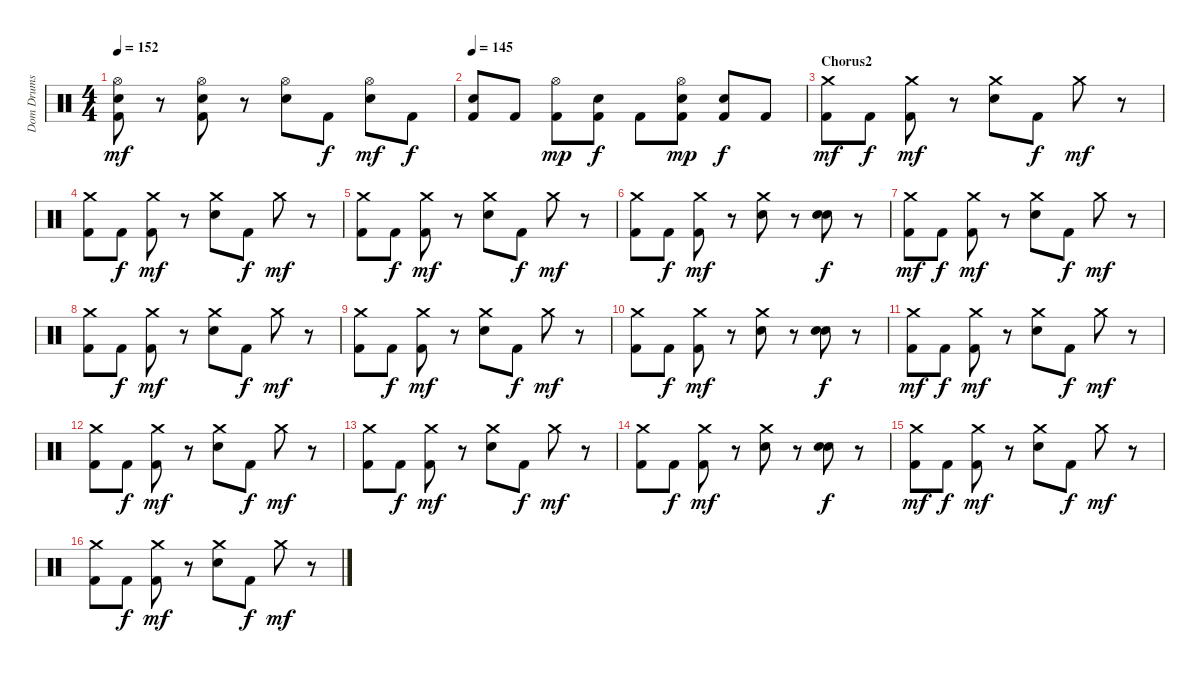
\track ("Dom Drums" "Dom Drums") {instrument percussion}
\staff {score}
\articulation defaults
\ts (4 4)
\tempo 152
\clef neutral
\ks c
("Hi-Hat (open)" "Kick (hit) 2" "Snare (hit) 2").8{dy mf} r.8 ("Hi-Hat (open)" "Kick (hit) 2" "Snare (hit) 2").8 r.8 ("Hi-Hat (open)" "Snare (hit) 2").8 "Kick (hit) 2".8{dy f} ("Hi-Hat (open)" "Snare (hit) 2").8{dy mf} "Kick (hit) 2".8{dy f} |
\tempo 145
("Kick (hit) 2" "Snare (hit) 2").8 "Kick (hit) 2".8 ("Hi-Hat (open)" "Kick (hit) 2").8{dy mp} ("Kick (hit) 2" "Snare (hit) 2").8{dy f} "Kick (hit) 2".8 ("Hi-Hat (open)" "Kick (hit) 2" "Snare (hit) 2").8{dy mp} ("Kick (hit) 2" "Snare (hit) 2").8{dy f} "Kick (hit) 2".8 |
\section ("" "Chorus2")
("Crash medium (hit)" "Kick (hit) 2").8{dy mf} "Kick (hit) 2".8{dy f} ("Crash medium (hit)" "Kick (hit) 2").8{dy mf} r.8 ("Crash medium (hit)" "Snare (hit) 2").8 "Kick (hit) 2".8{dy f} "Crash medium (hit)".8{dy mf} r.8 |
("Crash medium (hit)" "Kick (hit) 2").8 "Kick (hit) 2".8{dy f} ("Crash medium (hit)" "Kick (hit) 2").8{dy mf} r.8 ("Crash medium (hit)" "Snare (hit) 2").8 "Kick (hit) 2".8{dy f} "Crash medium (hit)".8{dy mf} r.8 |
("Crash medium (hit)" "Kick (hit) 2").8 "Kick (hit) 2".8{dy f} ("Crash medium (hit)" "Kick (hit) 2").8{dy mf} r.8 ("Crash medium (hit)" "Snare (hit) 2").8 "Kick (hit) 2".8{dy f} "Crash medium (hit)".8{dy mf} r.8 |
("Crash medium (hit)" "Kick (hit) 2").8 "Kick (hit) 2".8{dy f} ("Crash medium (hit)" "Kick (hit) 2").8{dy mf} r.8 ("Crash medium (hit)" "Snare (hit) 2").8 r.8 ("Snare (hit) 2" "Snare (hit) 2").8{dy f} r.8 |
("Crash medium (hit)" "Kick (hit) 2").8{dy mf} "Kick (hit) 2".8{dy f} ("Crash medium (hit)" "Kick (hit) 2").8{dy mf} r.8 ("Crash medium (hit)" "Snare (hit) 2").8 "Kick (hit) 2".8{dy f} "Crash medium (hit)".8{dy mf} r.8 |
("Crash medium (hit)" "Kick (hit) 2").8 "Kick (hit) 2".8{dy f} ("Crash medium (hit)" "Kick (hit) 2").8{dy mf} r.8 ("Crash medium (hit)" "Snare (hit) 2").8 "Kick (hit) 2".8{dy f} "Crash medium (hit)".8{dy mf} r.8 |
("Crash medium (hit)" "Kick (hit) 2").8 "Kick (hit) 2".8{dy f} ("Crash medium (hit)" "Kick (hit) 2").8{dy mf} r.8 ("Crash medium (hit)" "Snare (hit) 2").8 "Kick (hit) 2".8{dy f} "Crash medium (hit)".8{dy mf} r.8 |
("Crash medium (hit)" "Kick (hit) 2").8 "Kick (hit) 2".8{dy f} ("Crash medium (hit)" "Kick (hit) 2").8{dy mf} r.8 ("Crash medium (hit)" "Snare (hit) 2").8 r.8 ("Snare (hit) 2" "Snare (hit) 2").8{dy f} r.8 |
("Crash medium (hit)" "Kick (hit) 2").8{dy mf} "Kick (hit) 2".8{dy f} ("Crash medium (hit)" "Kick (hit) 2").8{dy mf} r.8 ("Crash medium (hit)" "Snare (hit) 2").8 "Kick (hit) 2".8{dy f} "Crash medium (hit)".8{dy mf} r.8 |
("Crash medium (hit)" "Kick (hit) 2").8 "Kick (hit) 2".8{dy f} ("Crash medium (hit)" "Kick (hit) 2").8{dy mf} r.8 ("Crash medium (hit)" "Snare (hit) 2").8 "Kick (hit) 2".8{dy f} "Crash medium (hit)".8{dy mf} r.8 |
("Crash medium (hit)" "Kick (hit) 2").8 "Kick (hit) 2".8{dy f} ("Crash medium (hit)" "Kick (hit) 2").8{dy mf} r.8 ("Crash medium (hit)" "Snare (hit) 2").8 "Kick (hit) 2".8{dy f} "Crash medium (hit)".8{dy mf} r.8 |
("Crash medium (hit)" "Kick (hit) 2").8 "Kick (hit) 2".8{dy f} ("Crash medium (hit)" "Kick (hit) 2").8{dy mf} r.8 ("Crash medium (hit)" "Snare (hit) 2").8 r.8 ("Snare (hit) 2" "Snare (hit) 2").8{dy f} r.8 |
("Crash medium (hit)" "Kick (hit) 2").8{dy mf} "Kick (hit) 2".8{dy f} ("Crash medium (hit)" "Kick (hit) 2").8{dy mf} r.8 ("Crash medium (hit)" "Snare (hit) 2").8 "Kick (hit) 2".8{dy f} "Crash medium (hit)".8{dy mf} r.8 |
("Crash medium (hit)" "Kick (hit) 2").8 "Kick (hit) 2".8{dy f} ("Crash medium (hit)" "Kick (hit) 2").8{dy mf} r.8 ("Crash medium (hit)" "Snare (hit) 2").8 "Kick (hit) 2".8{dy f} "Crash medium (hit)".8{dy mf} r.8
